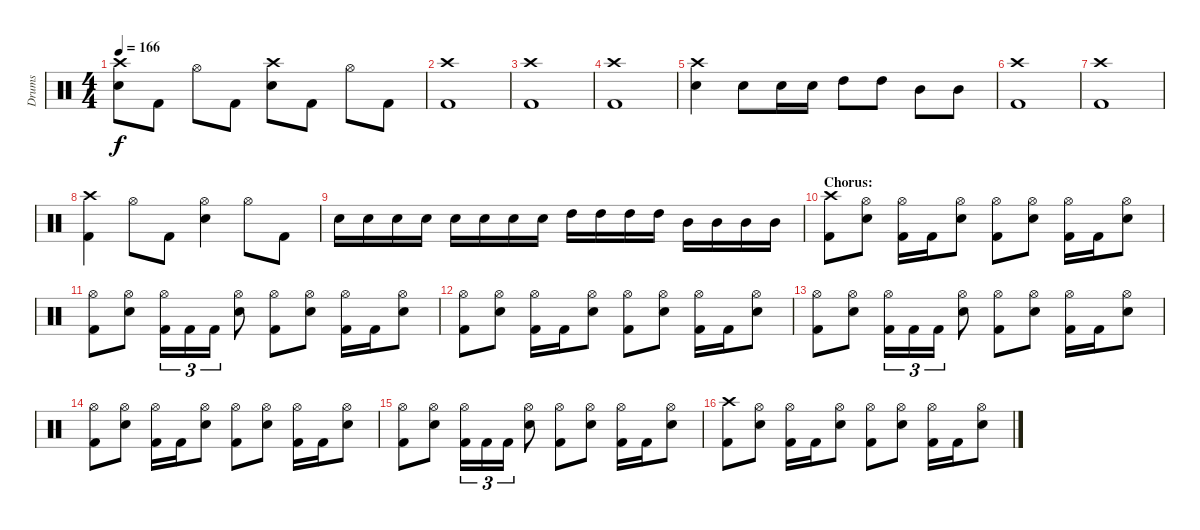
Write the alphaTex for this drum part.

\track ("Drums" "Drums") {instrument percussion}
\staff {score}
\articulation defaults
\ts (4 4)
\tempo 166
\clef neutral
\ks c
("Crash high (hit)" "Electric Snare (hit)").8{dy f} "Kick (hit) 2".8 "Hi-Hat (open)".8 "Kick (hit) 2".8 ("Crash high (hit)" "Electric Snare (hit)").8 "Kick (hit) 2".8 "Hi-Hat (open)".8 "Kick (hit) 2".8 |
("Crash high (hit)" "Kick (hit) 2").1 |
("Crash high (hit)" "Kick (hit) 2").1 |
("Crash high (hit)" "Kick (hit) 2").1 |
("Crash high (hit)" "Electric Snare (hit)").4 "Electric Snare (hit)".8 "Electric Snare (hit)".16 "Electric Snare (hit)".16 "High Tom (hit)".8 "High Tom (hit)".8 "Mid Tom (hit)".8 "Mid Tom (hit)".8 |
("Crash high (hit)" "Kick (hit) 2").1 |
("Crash high (hit)" "Kick (hit) 2").1 |
("Crash high (hit)" "Kick (hit) 2").4 "Hi-Hat (open)".8 "Kick (hit) 2".8 ("Hi-Hat (open)" "Electric Snare (hit)").4 "Hi-Hat (open)".8 "Kick (hit) 2".8 |
"Electric Snare (hit)".16 "Electric Snare (hit)".16 "Electric Snare (hit)".16 "Electric Snare (hit)".16 "Electric Snare (hit)".16 "Electric Snare (hit)".16 "Electric Snare (hit)".16 "Electric Snare (hit)".16 "High Tom (hit)".16 "High Tom (hit)".16 "High Tom (hit)".16 "High Tom (hit)".16 "Mid Tom (hit)".16 "Mid Tom (hit)".16 "Mid Tom (hit)".16 "Mid Tom (hit)".16 |
\section ("" "Chorus:")
("Crash high (hit)" "Kick (hit) 2").8 ("Hi-Hat (open)" "Electric Snare (hit)").8 ("Hi-Hat (open)" "Kick (hit) 2").16 "Kick (hit) 2".16 ("Hi-Hat (open)" "Electric Snare (hit)").8 ("Hi-Hat (open)" "Kick (hit) 2").8 ("Hi-Hat (open)" "Electric Snare (hit)").8 ("Hi-Hat (open)" "Kick (hit) 2").16 "Kick (hit) 2".16 ("Hi-Hat (open)" "Electric Snare (hit)").8 |
("Hi-Hat (open)" "Kick (hit) 2").8 ("Hi-Hat (open)" "Electric Snare (hit)").8 ("Hi-Hat (open)" "Kick (hit) 2").16{tu (3 2)} "Kick (hit) 2".16{tu (3 2)} "Kick (hit) 2".16{tu (3 2)} ("Hi-Hat (open)" "Electric Snare (hit)").8 ("Hi-Hat (open)" "Kick (hit) 2").8 ("Hi-Hat (open)" "Electric Snare (hit)").8 ("Hi-Hat (open)" "Kick (hit) 2").16 "Kick (hit) 2".16 ("Hi-Hat (open)" "Electric Snare (hit)").8 |
("Hi-Hat (open)" "Kick (hit) 2").8 ("Hi-Hat (open)" "Electric Snare (hit)").8 ("Hi-Hat (open)" "Kick (hit) 2").16 "Kick (hit) 2".16 ("Hi-Hat (open)" "Electric Snare (hit)").8 ("Hi-Hat (open)" "Kick (hit) 2").8 ("Hi-Hat (open)" "Electric Snare (hit)").8 ("Hi-Hat (open)" "Kick (hit) 2").16 "Kick (hit) 2".16 ("Hi-Hat (open)" "Electric Snare (hit)").8 |
("Hi-Hat (open)" "Kick (hit) 2").8 ("Hi-Hat (open)" "Electric Snare (hit)").8 ("Hi-Hat (open)" "Kick (hit) 2").16{tu (3 2)} "Kick (hit) 2".16{tu (3 2)} "Kick (hit) 2".16{tu (3 2)} ("Hi-Hat (open)" "Electric Snare (hit)").8 ("Hi-Hat (open)" "Kick (hit) 2").8 ("Hi-Hat (open)" "Electric Snare (hit)").8 ("Hi-Hat (open)" "Kick (hit) 2").16 "Kick (hit) 2".16 ("Hi-Hat (open)" "Electric Snare (hit)").8 |
("Hi-Hat (open)" "Kick (hit) 2").8 ("Hi-Hat (open)" "Electric Snare (hit)").8 ("Hi-Hat (open)" "Kick (hit) 2").16 "Kick (hit) 2".16 ("Hi-Hat (open)" "Electric Snare (hit)").8 ("Hi-Hat (open)" "Kick (hit) 2").8 ("Hi-Hat (open)" "Electric Snare (hit)").8 ("Hi-Hat (open)" "Kick (hit) 2").16 "Kick (hit) 2".16 ("Hi-Hat (open)" "Electric Snare (hit)").8 |
("Hi-Hat (open)" "Kick (hit) 2").8 ("Hi-Hat (open)" "Electric Snare (hit)").8 ("Hi-Hat (open)" "Kick (hit) 2").16{tu (3 2)} "Kick (hit) 2".16{tu (3 2)} "Kick (hit) 2".16{tu (3 2)} ("Hi-Hat (open)" "Electric Snare (hit)").8 ("Hi-Hat (open)" "Kick (hit) 2").8 ("Hi-Hat (open)" "Electric Snare (hit)").8 ("Hi-Hat (open)" "Kick (hit) 2").16 "Kick (hit) 2".16 ("Hi-Hat (open)" "Electric Snare (hit)").8 |
("Crash high (hit)" "Kick (hit) 2").8 ("Hi-Hat (open)" "Electric Snare (hit)").8 ("Hi-Hat (open)" "Kick (hit) 2").16 "Kick (hit) 2".16 ("Hi-Hat (open)" "Electric Snare (hit)").8 ("Hi-Hat (open)" "Kick (hit) 2").8 ("Hi-Hat (open)" "Electric Snare (hit)").8 ("Hi-Hat (open)" "Kick (hit) 2").16 "Kick (hit) 2".16 ("Hi-Hat (open)" "Electric Snare (hit)").8
